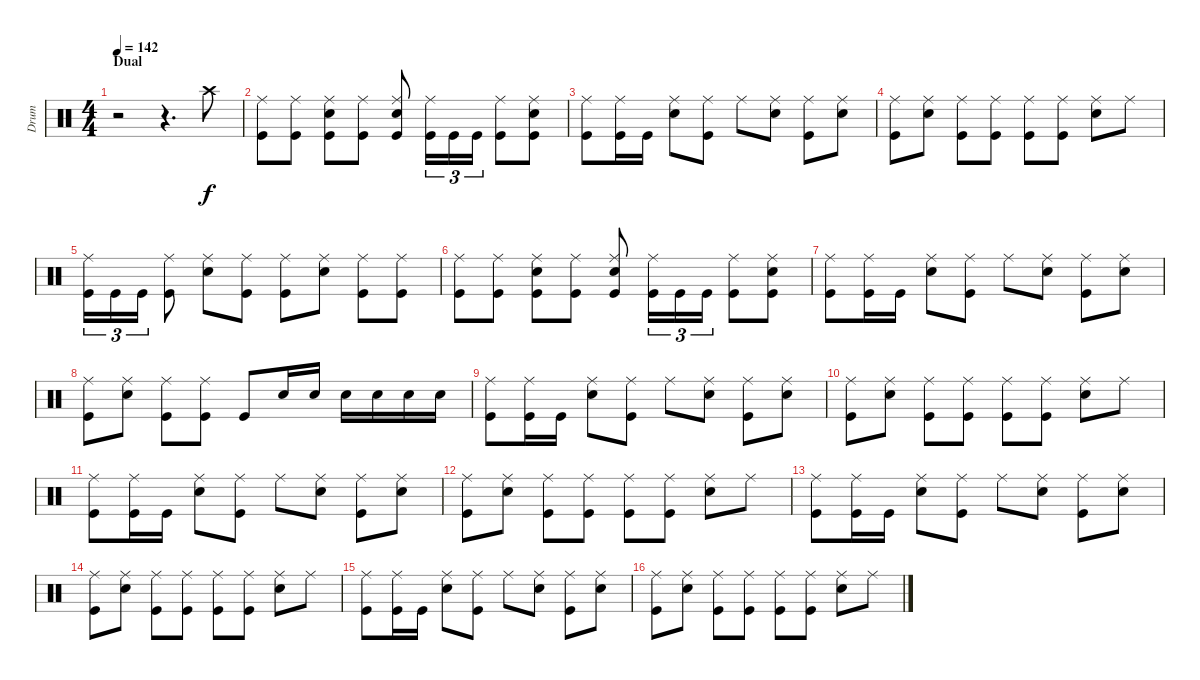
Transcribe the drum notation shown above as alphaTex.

\track ("Drum" "Drum") {instrument percussion}
\staff {score}
\articulation defaults
\ts (4 4)
\section ("" "Dual")
\tempo 142
\clef neutral
\ks c
r.2{dy f} r.4{d} "Crash high (hit)".8 |
("Kick (hit)" "Ride (middle)").8 ("Kick (hit)" "Ride (middle)").8 ("Kick (hit)" "Snare (hit) 2" "Ride (middle)").8 ("Kick (hit)" "Ride (middle)").8 ("Kick (hit)" "Snare (hit) 2" "Ride (middle)").8 ("Kick (hit)" "Ride (middle)").16{tu (3 2)} "Kick (hit)".16{tu (3 2)} "Kick (hit)".16{tu (3 2)} ("Kick (hit)" "Ride (middle)").8 ("Kick (hit)" "Ride (middle)" "Snare (hit) 2").8 |
("Kick (hit)" "Ride (middle)").8 ("Kick (hit)" "Ride (middle)").16 "Kick (hit)".16 ("Snare (hit) 2" "Ride (middle)").8 ("Kick (hit)" "Ride (middle)").8 "Ride (middle)".8 ("Snare (hit) 2" "Ride (middle)").8 ("Kick (hit)" "Ride (middle)").8 ("Snare (hit) 2" "Ride (middle)").8 |
("Kick (hit)" "Ride (middle)").8 ("Snare (hit) 2" "Ride (middle)").8 ("Kick (hit)" "Ride (middle)").8 ("Kick (hit)" "Ride (middle)").8 ("Kick (hit)" "Ride (middle)").8 ("Kick (hit)" "Ride (middle)").8 ("Snare (hit) 2" "Ride (middle)").8 "Ride (middle)".8 |
("Kick (hit)" "Ride (middle)").16{tu (3 2)} "Kick (hit)".16{tu (3 2)} "Kick (hit)".16{tu (3 2)} ("Kick (hit)" "Ride (middle)").8 ("Snare (hit) 2" "Ride (middle)").8 ("Kick (hit)" "Ride (middle)").8 ("Kick (hit)" "Ride (middle)").8 ("Snare (hit) 2" "Ride (middle)").8 ("Kick (hit)" "Ride (middle)").8 ("Kick (hit)" "Ride (middle)").8 |
("Kick (hit)" "Ride (middle)").8 ("Kick (hit)" "Ride (middle)").8 ("Kick (hit)" "Snare (hit) 2" "Ride (middle)").8 ("Kick (hit)" "Ride (middle)").8 ("Kick (hit)" "Snare (hit) 2" "Ride (middle)").8 ("Kick (hit)" "Ride (middle)").16{tu (3 2)} "Kick (hit)".16{tu (3 2)} "Kick (hit)".16{tu (3 2)} ("Kick (hit)" "Ride (middle)").8 ("Kick (hit)" "Ride (middle)" "Snare (hit) 2").8 |
("Kick (hit)" "Ride (middle)").8 ("Kick (hit)" "Ride (middle)").16 "Kick (hit)".16 ("Snare (hit) 2" "Ride (middle)").8 ("Kick (hit)" "Ride (middle)").8 "Ride (middle)".8 ("Snare (hit) 2" "Ride (middle)").8 ("Kick (hit)" "Ride (middle)").8 ("Snare (hit) 2" "Ride (middle)").8 |
("Kick (hit)" "Ride (middle)").8 ("Snare (hit) 2" "Ride (middle)").8 ("Kick (hit)" "Ride (middle)").8 ("Kick (hit)" "Ride (middle)").8 "Kick (hit)".8 "Snare (hit) 2".16 "Snare (hit) 2".16 "Snare (hit) 2".16 "Snare (hit) 2".16 "Snare (hit) 2".16 "Snare (hit) 2".16 |
("Kick (hit)" "Ride (middle)").8 ("Kick (hit)" "Ride (middle)").16 "Kick (hit)".16 ("Snare (hit) 2" "Ride (middle)").8 ("Kick (hit)" "Ride (middle)").8 "Ride (middle)".8 ("Snare (hit) 2" "Ride (middle)").8 ("Kick (hit)" "Ride (middle)").8 ("Snare (hit) 2" "Ride (middle)").8 |
("Kick (hit)" "Ride (middle)").8 ("Snare (hit) 2" "Ride (middle)").8 ("Kick (hit)" "Ride (middle)").8 ("Kick (hit)" "Ride (middle)").8 ("Kick (hit)" "Ride (middle)").8 ("Kick (hit)" "Ride (middle)").8 ("Snare (hit) 2" "Ride (middle)").8 "Ride (middle)".8 |
("Kick (hit)" "Ride (middle)").8 ("Kick (hit)" "Ride (middle)").16 "Kick (hit)".16 ("Snare (hit) 2" "Ride (middle)").8 ("Kick (hit)" "Ride (middle)").8 "Ride (middle)".8 ("Snare (hit) 2" "Ride (middle)").8 ("Kick (hit)" "Ride (middle)").8 ("Snare (hit) 2" "Ride (middle)").8 |
("Kick (hit)" "Ride (middle)").8 ("Snare (hit) 2" "Ride (middle)").8 ("Kick (hit)" "Ride (middle)").8 ("Kick (hit)" "Ride (middle)").8 ("Kick (hit)" "Ride (middle)").8 ("Kick (hit)" "Ride (middle)").8 ("Snare (hit) 2" "Ride (middle)").8 "Ride (middle)".8 |
("Kick (hit)" "Ride (middle)").8 ("Kick (hit)" "Ride (middle)").16 "Kick (hit)".16 ("Snare (hit) 2" "Ride (middle)").8 ("Kick (hit)" "Ride (middle)").8 "Ride (middle)".8 ("Snare (hit) 2" "Ride (middle)").8 ("Kick (hit)" "Ride (middle)").8 ("Snare (hit) 2" "Ride (middle)").8 |
("Kick (hit)" "Ride (middle)").8 ("Snare (hit) 2" "Ride (middle)").8 ("Kick (hit)" "Ride (middle)").8 ("Kick (hit)" "Ride (middle)").8 ("Kick (hit)" "Ride (middle)").8 ("Kick (hit)" "Ride (middle)").8 ("Snare (hit) 2" "Ride (middle)").8 "Ride (middle)".8 |
("Kick (hit)" "Ride (middle)").8 ("Kick (hit)" "Ride (middle)").16 "Kick (hit)".16 ("Snare (hit) 2" "Ride (middle)").8 ("Kick (hit)" "Ride (middle)").8 "Ride (middle)".8 ("Snare (hit) 2" "Ride (middle)").8 ("Kick (hit)" "Ride (middle)").8 ("Snare (hit) 2" "Ride (middle)").8 |
("Kick (hit)" "Ride (middle)").8 ("Snare (hit) 2" "Ride (middle)").8 ("Kick (hit)" "Ride (middle)").8 ("Kick (hit)" "Ride (middle)").8 ("Kick (hit)" "Ride (middle)").8 ("Kick (hit)" "Ride (middle)").8 ("Snare (hit) 2" "Ride (middle)").8 "Ride (middle)".8
